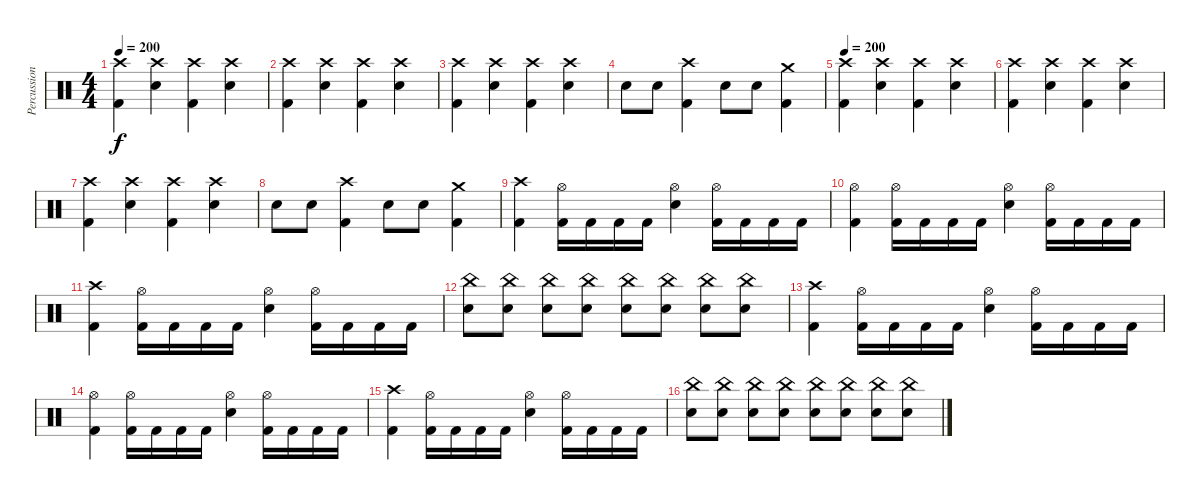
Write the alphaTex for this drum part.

\track ("Percussion" "Percussion") {instrument percussion}
\staff {score}
\articulation defaults
\ts (4 4)
\tempo 200
\clef neutral
\ks c
("Crash high (hit)" "Kick (hit) 2").4{dy f} ("Crash high (hit)" "Electric Snare (hit)").4 ("Crash high (hit)" "Kick (hit) 2").4 ("Crash high (hit)" "Electric Snare (hit)").4 |
("Crash high (hit)" "Kick (hit) 2").4 ("Crash high (hit)" "Electric Snare (hit)").4 ("Crash high (hit)" "Kick (hit) 2").4 ("Crash high (hit)" "Electric Snare (hit)").4 |
("Crash high (hit)" "Kick (hit) 2").4 ("Crash high (hit)" "Electric Snare (hit)").4 ("Crash high (hit)" "Kick (hit) 2").4 ("Crash high (hit)" "Electric Snare (hit)").4 |
"Electric Snare (hit)".8 "Electric Snare (hit)".8 ("Crash high (hit)" "Kick (hit) 2").4 "Electric Snare (hit)".8 "Electric Snare (hit)".8 ("Crash medium (hit)" "Kick (hit) 2").4 |
\tempo 200
("Crash high (hit)" "Kick (hit) 2").4 ("Crash high (hit)" "Electric Snare (hit)").4 ("Crash high (hit)" "Kick (hit) 2").4 ("Crash high (hit)" "Electric Snare (hit)").4 |
("Crash high (hit)" "Kick (hit) 2").4 ("Crash high (hit)" "Electric Snare (hit)").4 ("Crash high (hit)" "Kick (hit) 2").4 ("Crash high (hit)" "Electric Snare (hit)").4 |
("Crash high (hit)" "Kick (hit) 2").4 ("Crash high (hit)" "Electric Snare (hit)").4 ("Crash high (hit)" "Kick (hit) 2").4 ("Crash high (hit)" "Electric Snare (hit)").4 |
"Electric Snare (hit)".8 "Electric Snare (hit)".8 ("Crash high (hit)" "Kick (hit) 2").4 "Electric Snare (hit)".8 "Electric Snare (hit)".8 ("Crash medium (hit)" "Kick (hit) 2").4 |
("Crash high (hit)" "Kick (hit) 2").4 ("Hi-Hat (open)" "Kick (hit) 2").16 "Kick (hit) 2".16 "Kick (hit) 2".16 "Kick (hit) 2".16 ("Hi-Hat (open)" "Electric Snare (hit)").4 ("Hi-Hat (open)" "Kick (hit) 2").16 "Kick (hit) 2".16 "Kick (hit) 2".16 "Kick (hit) 2".16 |
("Hi-Hat (open)" "Kick (hit) 2").4 ("Hi-Hat (open)" "Kick (hit) 2").16 "Kick (hit) 2".16 "Kick (hit) 2".16 "Kick (hit) 2".16 ("Hi-Hat (open)" "Electric Snare (hit)").4 ("Hi-Hat (open)" "Kick (hit) 2").16 "Kick (hit) 2".16 "Kick (hit) 2".16 "Kick (hit) 2".16 |
("Crash high (hit)" "Kick (hit) 2").4 ("Hi-Hat (open)" "Kick (hit) 2").16 "Kick (hit) 2".16 "Kick (hit) 2".16 "Kick (hit) 2".16 ("Hi-Hat (open)" "Electric Snare (hit)").4 ("Hi-Hat (open)" "Kick (hit) 2").16 "Kick (hit) 2".16 "Kick (hit) 2".16 "Kick (hit) 2".16 |
("China (hit)" "Electric Snare (hit)").8 ("China (hit)" "Electric Snare (hit)").8 ("China (hit)" "Electric Snare (hit)").8 ("China (hit)" "Electric Snare (hit)").8 ("China (hit)" "Electric Snare (hit)").8 ("China (hit)" "Electric Snare (hit)").8 ("China (hit)" "Electric Snare (hit)").8 ("China (hit)" "Electric Snare (hit)").8 |
("Crash high (hit)" "Kick (hit) 2").4 ("Hi-Hat (open)" "Kick (hit) 2").16 "Kick (hit) 2".16 "Kick (hit) 2".16 "Kick (hit) 2".16 ("Hi-Hat (open)" "Electric Snare (hit)").4 ("Hi-Hat (open)" "Kick (hit) 2").16 "Kick (hit) 2".16 "Kick (hit) 2".16 "Kick (hit) 2".16 |
("Hi-Hat (open)" "Kick (hit) 2").4 ("Hi-Hat (open)" "Kick (hit) 2").16 "Kick (hit) 2".16 "Kick (hit) 2".16 "Kick (hit) 2".16 ("Hi-Hat (open)" "Electric Snare (hit)").4 ("Hi-Hat (open)" "Kick (hit) 2").16 "Kick (hit) 2".16 "Kick (hit) 2".16 "Kick (hit) 2".16 |
("Crash high (hit)" "Kick (hit) 2").4 ("Hi-Hat (open)" "Kick (hit) 2").16 "Kick (hit) 2".16 "Kick (hit) 2".16 "Kick (hit) 2".16 ("Hi-Hat (open)" "Electric Snare (hit)").4 ("Hi-Hat (open)" "Kick (hit) 2").16 "Kick (hit) 2".16 "Kick (hit) 2".16 "Kick (hit) 2".16 |
("China (hit)" "Electric Snare (hit)").8 ("China (hit)" "Electric Snare (hit)").8 ("China (hit)" "Electric Snare (hit)").8 ("China (hit)" "Electric Snare (hit)").8 ("China (hit)" "Electric Snare (hit)").8 ("China (hit)" "Electric Snare (hit)").8 ("China (hit)" "Electric Snare (hit)").8 ("China (hit)" "Electric Snare (hit)").8
